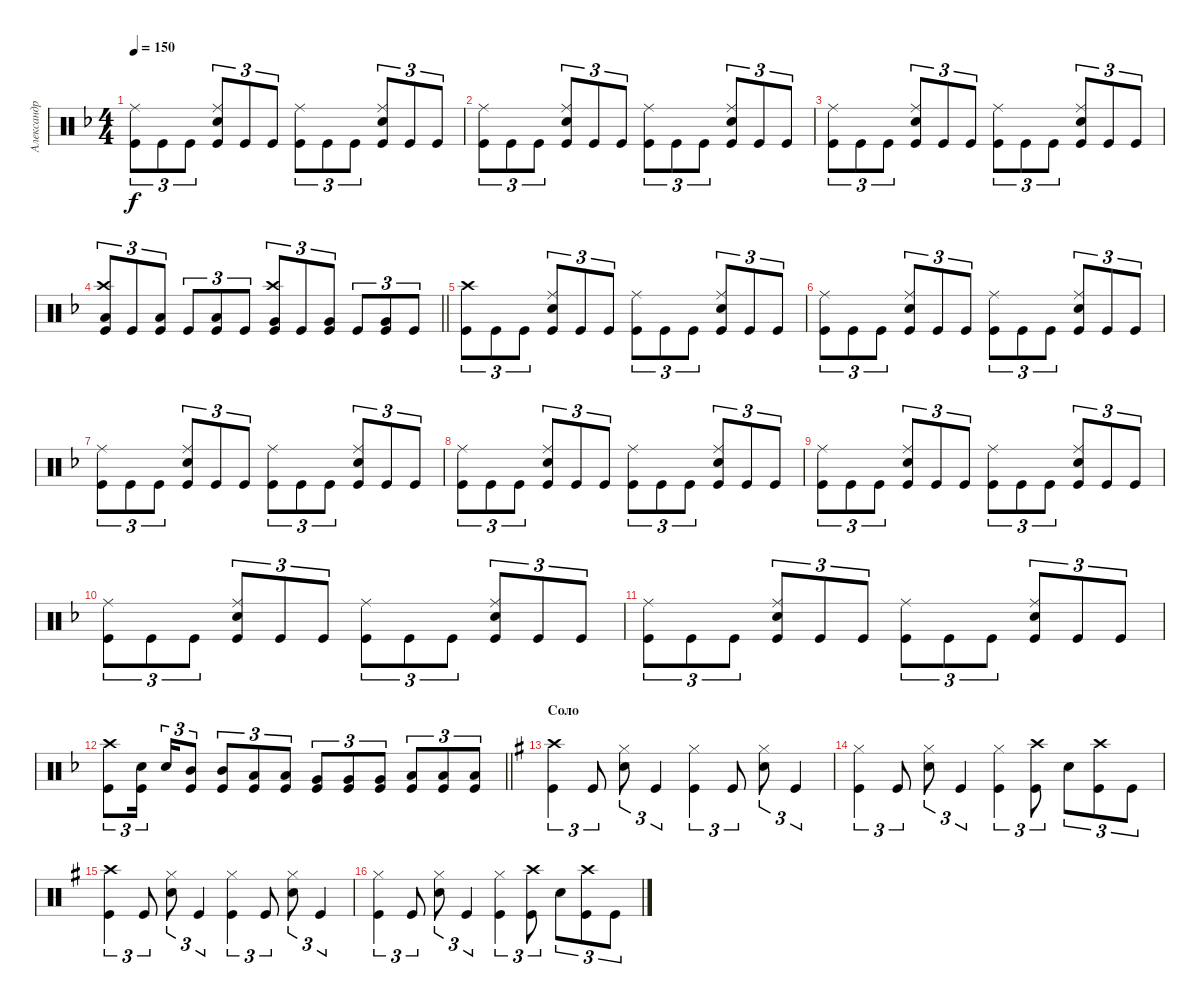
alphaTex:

\track ("Александр Манякин" "Александр ") {instrument percussion}
\staff {score}
\articulation defaults
\ts (4 4)
\tempo 150
\clef neutral
\ks dminor
("Kick (hit)" "Ride (middle)").8{tu (3 2) dy f} "Kick (hit)".8{tu (3 2)} "Kick (hit)".8{tu (3 2)} ("Snare (hit) 2" "Kick (hit)" "Ride (middle)").8{tu (3 2)} "Kick (hit)".8{tu (3 2)} "Kick (hit)".8{tu (3 2)} ("Kick (hit)" "Ride (middle)").8{tu (3 2)} "Kick (hit)".8{tu (3 2)} "Kick (hit)".8{tu (3 2)} ("Kick (hit)" "Snare (hit) 2" "Ride (middle)").8{tu (3 2)} "Kick (hit)".8{tu (3 2)} "Kick (hit)".8{tu (3 2)} |
("Kick (hit)" "Ride (middle)").8{tu (3 2)} "Kick (hit)".8{tu (3 2)} "Kick (hit)".8{tu (3 2)} ("Snare (hit) 2" "Kick (hit)" "Ride (middle)").8{tu (3 2)} "Kick (hit)".8{tu (3 2)} "Kick (hit)".8{tu (3 2)} ("Kick (hit)" "Ride (middle)").8{tu (3 2)} "Kick (hit)".8{tu (3 2)} "Kick (hit)".8{tu (3 2)} ("Kick (hit)" "Snare (hit) 2" "Ride (middle)").8{tu (3 2)} "Kick (hit)".8{tu (3 2)} "Kick (hit)".8{tu (3 2)} |
("Kick (hit)" "Ride (middle)").8{tu (3 2)} "Kick (hit)".8{tu (3 2)} "Kick (hit)".8{tu (3 2)} ("Snare (hit) 2" "Kick (hit)" "Ride (middle)").8{tu (3 2)} "Kick (hit)".8{tu (3 2)} "Kick (hit)".8{tu (3 2)} ("Kick (hit)" "Ride (middle)").8{tu (3 2)} "Kick (hit)".8{tu (3 2)} "Kick (hit)".8{tu (3 2)} ("Kick (hit)" "Snare (hit) 2" "Ride (middle)").8{tu (3 2)} "Kick (hit)".8{tu (3 2)} "Kick (hit)".8{tu (3 2)} |
\barLineRight lightlight
("Kick (hit)" "Crash high (hit)" "Low Tom (hit)").8{tu (3 2)} "Kick (hit)".8{tu (3 2)} ("Kick (hit)" "Low Tom (hit)").8{tu (3 2)} "Kick (hit)".8{tu (3 2)} ("Kick (hit)" "Low Tom (hit)").8{tu (3 2)} "Kick (hit)".8{tu (3 2)} ("Kick (hit)" "Crash high (hit)" "Very Low Tom (hit)").8{tu (3 2)} "Kick (hit)".8{tu (3 2)} ("Kick (hit)" "Very Low Tom (hit)").8{tu (3 2)} "Kick (hit)".8{tu (3 2)} ("Kick (hit)" "Very Low Tom (hit)").8{tu (3 2)} "Kick (hit)".8{tu (3 2)} |
("Kick (hit)" "Crash high (hit)").8{tu (3 2)} "Kick (hit)".8{tu (3 2)} "Kick (hit)".8{tu (3 2)} ("Snare (hit) 2" "Kick (hit)" "Ride (middle)").8{tu (3 2)} "Kick (hit)".8{tu (3 2)} "Kick (hit)".8{tu (3 2)} ("Kick (hit)" "Ride (middle)").8{tu (3 2)} "Kick (hit)".8{tu (3 2)} "Kick (hit)".8{tu (3 2)} ("Kick (hit)" "Snare (hit) 2" "Ride (middle)").8{tu (3 2)} "Kick (hit)".8{tu (3 2)} "Kick (hit)".8{tu (3 2)} |
("Kick (hit)" "Ride (middle)").8{tu (3 2)} "Kick (hit)".8{tu (3 2)} "Kick (hit)".8{tu (3 2)} ("Snare (hit) 2" "Kick (hit)" "Ride (middle)").8{tu (3 2)} "Kick (hit)".8{tu (3 2)} "Kick (hit)".8{tu (3 2)} ("Kick (hit)" "Ride (middle)").8{tu (3 2)} "Kick (hit)".8{tu (3 2)} "Kick (hit)".8{tu (3 2)} ("Kick (hit)" "Snare (hit) 2" "Ride (middle)").8{tu (3 2)} "Kick (hit)".8{tu (3 2)} "Kick (hit)".8{tu (3 2)} |
("Kick (hit)" "Ride (middle)").8{tu (3 2)} "Kick (hit)".8{tu (3 2)} "Kick (hit)".8{tu (3 2)} ("Snare (hit) 2" "Kick (hit)" "Ride (middle)").8{tu (3 2)} "Kick (hit)".8{tu (3 2)} "Kick (hit)".8{tu (3 2)} ("Kick (hit)" "Ride (middle)").8{tu (3 2)} "Kick (hit)".8{tu (3 2)} "Kick (hit)".8{tu (3 2)} ("Kick (hit)" "Snare (hit) 2" "Ride (middle)").8{tu (3 2)} "Kick (hit)".8{tu (3 2)} "Kick (hit)".8{tu (3 2)} |
("Kick (hit)" "Ride (middle)").8{tu (3 2)} "Kick (hit)".8{tu (3 2)} "Kick (hit)".8{tu (3 2)} ("Snare (hit) 2" "Kick (hit)" "Ride (middle)").8{tu (3 2)} "Kick (hit)".8{tu (3 2)} "Kick (hit)".8{tu (3 2)} ("Kick (hit)" "Ride (middle)").8{tu (3 2)} "Kick (hit)".8{tu (3 2)} "Kick (hit)".8{tu (3 2)} ("Kick (hit)" "Snare (hit) 2" "Ride (middle)").8{tu (3 2)} "Kick (hit)".8{tu (3 2)} "Kick (hit)".8{tu (3 2)} |
("Kick (hit)" "Ride (middle)").8{tu (3 2)} "Kick (hit)".8{tu (3 2)} "Kick (hit)".8{tu (3 2)} ("Snare (hit) 2" "Kick (hit)" "Ride (middle)").8{tu (3 2)} "Kick (hit)".8{tu (3 2)} "Kick (hit)".8{tu (3 2)} ("Kick (hit)" "Ride (middle)").8{tu (3 2)} "Kick (hit)".8{tu (3 2)} "Kick (hit)".8{tu (3 2)} ("Kick (hit)" "Snare (hit) 2" "Ride (middle)").8{tu (3 2)} "Kick (hit)".8{tu (3 2)} "Kick (hit)".8{tu (3 2)} |
("Kick (hit)" "Ride (middle)").8{tu (3 2)} "Kick (hit)".8{tu (3 2)} "Kick (hit)".8{tu (3 2)} ("Snare (hit) 2" "Kick (hit)" "Ride (middle)").8{tu (3 2)} "Kick (hit)".8{tu (3 2)} "Kick (hit)".8{tu (3 2)} ("Kick (hit)" "Ride (middle)").8{tu (3 2)} "Kick (hit)".8{tu (3 2)} "Kick (hit)".8{tu (3 2)} ("Kick (hit)" "Snare (hit) 2" "Ride (middle)").8{tu (3 2)} "Kick (hit)".8{tu (3 2)} "Kick (hit)".8{tu (3 2)} |
("Kick (hit)" "Ride (middle)").8{tu (3 2)} "Kick (hit)".8{tu (3 2)} "Kick (hit)".8{tu (3 2)} ("Snare (hit) 2" "Kick (hit)" "Ride (middle)").8{tu (3 2)} "Kick (hit)".8{tu (3 2)} "Kick (hit)".8{tu (3 2)} ("Kick (hit)" "Ride (middle)").8{tu (3 2)} "Kick (hit)".8{tu (3 2)} "Kick (hit)".8{tu (3 2)} ("Kick (hit)" "Snare (hit) 2" "Ride (middle)").8{tu (3 2)} "Kick (hit)".8{tu (3 2)} "Kick (hit)".8{tu (3 2)} |
\barLineRight lightlight
("Kick (hit)" "Crash high (hit)").8{tu (3 2)} ("Kick (hit)" "Snare (hit) 2").16{tu (3 2)} "Snare (hit) 2".16{tu (3 2)} ("Mid Tom (hit)" "Kick (hit)").8{tu (3 2)} ("Mid Tom (hit)" "Kick (hit)").8{tu (3 2)} ("Low Tom (hit)" "Kick (hit)").8{tu (3 2)} ("Low Tom (hit)" "Kick (hit)").8{tu (3 2)} ("Kick (hit)" "Very Low Tom (hit)").8{tu (3 2)} ("Kick (hit)" "Very Low Tom (hit)").8{tu (3 2)} ("Kick (hit)" "Very Low Tom (hit)").8{tu (3 2)} ("Kick (hit)" "Low Floor Tom (hit)").8{tu (3 2)} ("Kick (hit)" "Low Floor Tom (hit)").8{tu (3 2)} ("Kick (hit)" "Low Floor Tom (hit)").8{tu (3 2)} |
\section ("" "Соло")
\ks eminor
("Kick (hit)" "Crash high (hit)").4{tu (3 2)} "Kick (hit)".8{tu (3 2)} ("Snare (hit) 2" "Hi-Hat (closed)").8{tu (3 2)} "Kick (hit)".4{tu (3 2)} ("Kick (hit)" "Hi-Hat (closed)").4{tu (3 2)} "Kick (hit)".8{tu (3 2)} ("Snare (hit) 2" "Hi-Hat (closed)").8{tu (3 2)} "Kick (hit)".4{tu (3 2)} |
("Kick (hit)" "Hi-Hat (closed)").4{tu (3 2)} "Kick (hit)".8{tu (3 2)} ("Snare (hit) 2" "Hi-Hat (closed)").8{tu (3 2)} "Kick (hit)".4{tu (3 2)} ("Kick (hit)" "Hi-Hat (closed)").4{tu (3 2)} ("Kick (hit)" "Crash high (hit)").8{tu (3 2)} "Snare (hit) 2".8{tu (3 2)} ("Kick (hit)" "Crash high (hit)").8{tu (3 2)} "Kick (hit)".8{tu (3 2)} |
("Kick (hit)" "Crash high (hit)").4{tu (3 2)} "Kick (hit)".8{tu (3 2)} ("Snare (hit) 2" "Hi-Hat (closed)").8{tu (3 2)} "Kick (hit)".4{tu (3 2)} ("Kick (hit)" "Hi-Hat (closed)").4{tu (3 2)} "Kick (hit)".8{tu (3 2)} ("Snare (hit) 2" "Hi-Hat (closed)").8{tu (3 2)} "Kick (hit)".4{tu (3 2)} |
("Kick (hit)" "Hi-Hat (closed)").4{tu (3 2)} "Kick (hit)".8{tu (3 2)} ("Snare (hit) 2" "Hi-Hat (closed)").8{tu (3 2)} "Kick (hit)".4{tu (3 2)} ("Kick (hit)" "Hi-Hat (closed)").4{tu (3 2)} ("Kick (hit)" "Crash high (hit)").8{tu (3 2)} "Snare (hit) 2".8{tu (3 2)} ("Kick (hit)" "Crash high (hit)").8{tu (3 2)} "Kick (hit)".8{tu (3 2)}
